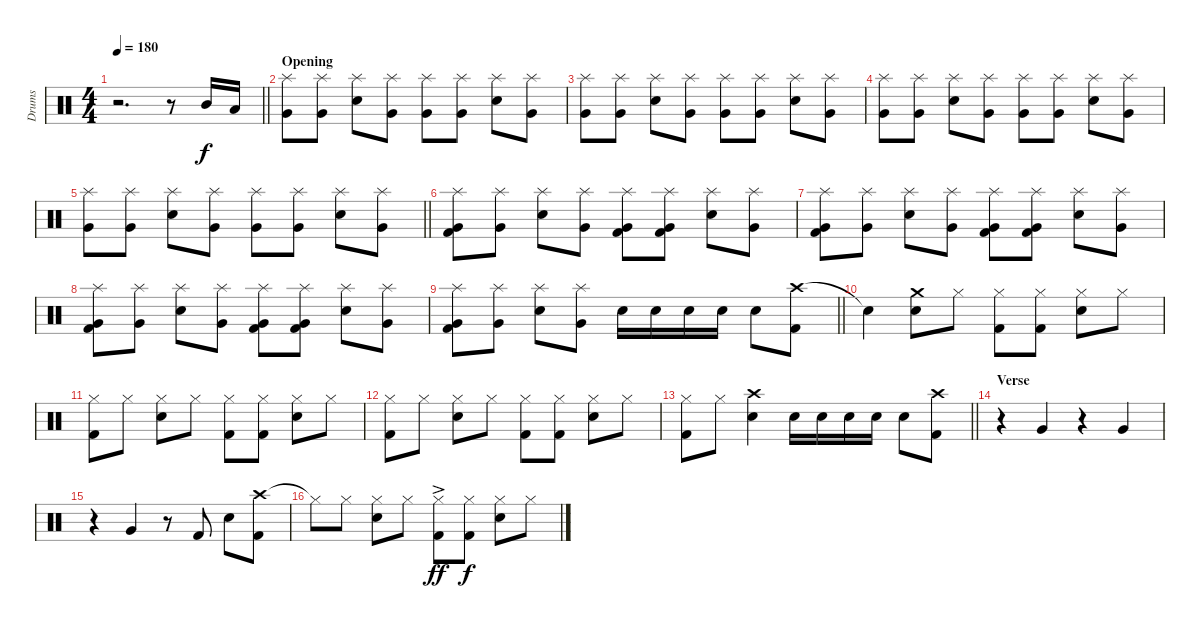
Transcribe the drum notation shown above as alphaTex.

\track ("Drums" "Drums") {instrument percussion}
\staff {score}
\articulation defaults
\ts (4 4)
\tempo 180
\clef neutral
\barLineRight lightlight
\ks c
r.2{d dy f} r.8 "Mid Tom (hit)".16 "Low Tom (hit)".16 |
\section ("" "Opening")
("Splash (hit)" "Very Low Tom (hit)").8 ("Splash (hit)" "Very Low Tom (hit)").8 ("Splash (hit)" "Snare (hit) 2").8 ("Splash (hit)" "Very Low Tom (hit)").8 ("Splash (hit)" "Very Low Tom (hit)").8 ("Splash (hit)" "Very Low Tom (hit)").8 ("Splash (hit)" "Snare (hit) 2").8 ("Splash (hit)" "Very Low Tom (hit)").8 |
("Splash (hit)" "Very Low Tom (hit)").8 ("Splash (hit)" "Very Low Tom (hit)").8 ("Splash (hit)" "Snare (hit) 2").8 ("Splash (hit)" "Very Low Tom (hit)").8 ("Splash (hit)" "Very Low Tom (hit)").8 ("Splash (hit)" "Very Low Tom (hit)").8 ("Splash (hit)" "Snare (hit) 2").8 ("Splash (hit)" "Very Low Tom (hit)").8 |
("Splash (hit)" "Very Low Tom (hit)").8 ("Splash (hit)" "Very Low Tom (hit)").8 ("Splash (hit)" "Snare (hit) 2").8 ("Splash (hit)" "Very Low Tom (hit)").8 ("Splash (hit)" "Very Low Tom (hit)").8 ("Splash (hit)" "Very Low Tom (hit)").8 ("Splash (hit)" "Snare (hit) 2").8 ("Splash (hit)" "Very Low Tom (hit)").8 |
\barLineRight lightlight
("Splash (hit)" "Very Low Tom (hit)").8 ("Splash (hit)" "Very Low Tom (hit)").8 ("Splash (hit)" "Snare (hit) 2").8 ("Splash (hit)" "Very Low Tom (hit)").8 ("Splash (hit)" "Very Low Tom (hit)").8 ("Splash (hit)" "Very Low Tom (hit)").8 ("Splash (hit)" "Snare (hit) 2").8 ("Splash (hit)" "Very Low Tom (hit)").8 |
("Splash (hit)" "Very Low Tom (hit)" "Kick (hit) 2").8 ("Splash (hit)" "Very Low Tom (hit)").8 ("Splash (hit)" "Snare (hit) 2").8 ("Splash (hit)" "Very Low Tom (hit)").8 ("Splash (hit)" "Very Low Tom (hit)" "Kick (hit) 2").8 ("Splash (hit)" "Very Low Tom (hit)" "Kick (hit) 2").8 ("Splash (hit)" "Snare (hit) 2").8 ("Splash (hit)" "Very Low Tom (hit)").8 |
("Splash (hit)" "Very Low Tom (hit)" "Kick (hit) 2").8 ("Splash (hit)" "Very Low Tom (hit)").8 ("Splash (hit)" "Snare (hit) 2").8 ("Splash (hit)" "Very Low Tom (hit)").8 ("Splash (hit)" "Very Low Tom (hit)" "Kick (hit) 2").8 ("Splash (hit)" "Very Low Tom (hit)" "Kick (hit) 2").8 ("Splash (hit)" "Snare (hit) 2").8 ("Splash (hit)" "Very Low Tom (hit)").8 |
("Splash (hit)" "Very Low Tom (hit)" "Kick (hit) 2").8 ("Splash (hit)" "Very Low Tom (hit)").8 ("Splash (hit)" "Snare (hit) 2").8 ("Splash (hit)" "Very Low Tom (hit)").8 ("Splash (hit)" "Very Low Tom (hit)" "Kick (hit) 2").8 ("Splash (hit)" "Very Low Tom (hit)" "Kick (hit) 2").8 ("Splash (hit)" "Snare (hit) 2").8 ("Splash (hit)" "Very Low Tom (hit)").8 |
\barLineRight lightlight
("Splash (hit)" "Very Low Tom (hit)" "Kick (hit) 2").8 ("Splash (hit)" "Very Low Tom (hit)").8 ("Splash (hit)" "Snare (hit) 2").8 ("Splash (hit)" "Very Low Tom (hit)").8 "Snare (hit) 2".16 "Snare (hit) 2".16 "Snare (hit) 2".16 "Snare (hit) 2".16 "Snare (hit) 2".8 ("Crash high (hit)" "Kick (hit) 2").8 |
"Snare (hit)"{t}.4 ("Crash medium (hit)" "Snare (hit) 2").8 "Hi-Hat (closed)".8 ("Hi-Hat (closed)" "Kick (hit) 2").8 ("Hi-Hat (closed)" "Kick (hit) 2").8 ("Hi-Hat (closed)" "Snare (hit) 2").8 "Hi-Hat (closed)".8 |
("Hi-Hat (closed)" "Kick (hit) 2").8 "Hi-Hat (closed)".8 ("Hi-Hat (closed)" "Snare (hit) 2").8 "Hi-Hat (closed)".8 ("Hi-Hat (closed)" "Kick (hit) 2").8 ("Hi-Hat (closed)" "Kick (hit) 2").8 ("Hi-Hat (closed)" "Snare (hit) 2").8 "Hi-Hat (closed)".8 |
("Hi-Hat (closed)" "Kick (hit) 2").8 "Hi-Hat (closed)".8 ("Hi-Hat (closed)" "Snare (hit) 2").8 "Hi-Hat (closed)".8 ("Hi-Hat (closed)" "Kick (hit) 2").8 ("Hi-Hat (closed)" "Kick (hit) 2").8 ("Hi-Hat (closed)" "Snare (hit) 2").8 "Hi-Hat (closed)".8 |
\barLineRight lightlight
("Hi-Hat (closed)" "Kick (hit) 2").8 "Hi-Hat (closed)".8 ("Crash high (hit)" "Snare (hit) 2").4 "Snare (hit) 2".16 "Snare (hit) 2".16 "Snare (hit) 2".16 "Snare (hit) 2".16 "Snare (hit) 2".8 ("Crash high (hit)" "Kick (hit) 2").8 |
\section ("" "Verse")
r.4 "Very Low Tom (hit)".4 r.4 "Very Low Tom (hit)".4 |
r.4 "Very Low Tom (hit)".4 r.8 "Kick (hit) 2".8 "Snare (hit) 2".8 ("Crash high (hit)" "Kick (hit) 2").8 |
"Hi-Hat (closed)"{t}.8 "Hi-Hat (closed)".8 ("Hi-Hat (closed)" "Snare (hit) 2").8 "Hi-Hat (closed)".8 ("Hi-Hat (closed)"{ac} "Kick (hit) 2").8{dy ff} ("Hi-Hat (closed)" "Kick (hit) 2").8{dy f} ("Hi-Hat (closed)" "Snare (hit) 2").8 "Hi-Hat (closed)".8
